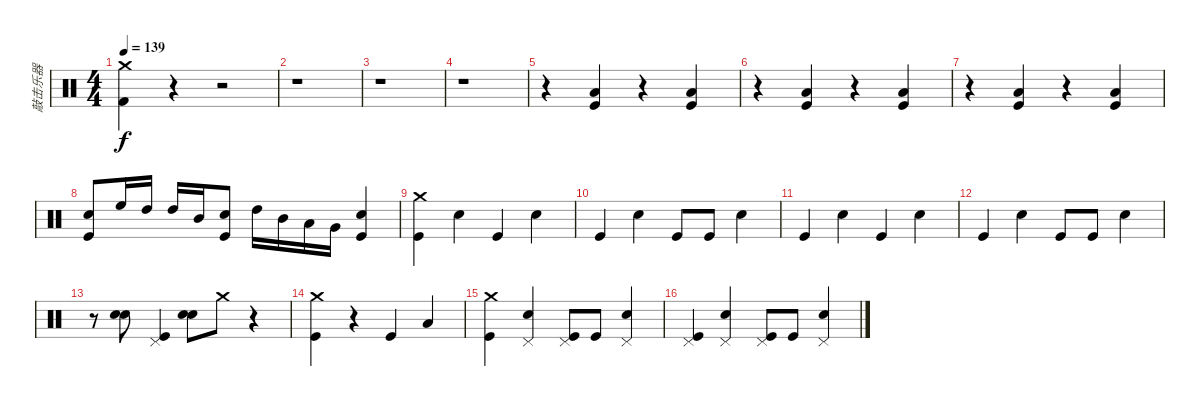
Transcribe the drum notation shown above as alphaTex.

\track ("敲击乐器" "敲击乐器") {instrument percussion}
\staff {score}
\articulation defaults
\ts (4 4)
\tempo 139
\clef neutral
\ks c
("Crash medium (hit)" "Kick (hit) 2").4{dy f} r.4 r.2 |
r.1 |
r.1 |
r.1 |
r.4 ("Low Tom (hit)" "Kick (hit)").4 r.4 ("Low Tom (hit)" "Kick (hit)").4 |
r.4 ("Low Tom (hit)" "Kick (hit)").4 r.4 ("Low Tom (hit)" "Kick (hit)").4 |
r.4 ("Low Tom (hit)" "Kick (hit)").4 r.4 ("Low Tom (hit)" "Kick (hit)").4 |
("Snare (hit) 2" "Kick (hit)").8 "High Floor Tom (hit)".16 "High Tom (hit)".16 "High Tom (hit)".16 "Mid Tom (hit)".16 ("Snare (hit) 2" "Kick (hit)").8 "High Tom (hit)".16 "Mid Tom (hit)".16 "Low Tom (hit)".16 "Very Low Tom (hit)".16 ("Snare (hit) 2" "Kick (hit)").4 |
("Crash medium (hit)" "Kick (hit)").4 "Snare (hit) 2".4 "Kick (hit)".4 "Snare (hit) 2".4 |
"Kick (hit)".4 "Snare (hit) 2".4 "Kick (hit)".8 "Kick (hit)".8 "Snare (hit) 2".4 |
"Kick (hit)".4 "Snare (hit) 2".4 "Kick (hit)".4 "Snare (hit) 2".4 |
"Kick (hit)".4 "Snare (hit) 2".4 "Kick (hit)".8 "Kick (hit)".8 "Snare (hit) 2".4 |
r.8 ("Snare (hit) 2" "Snare (hit) 2").8 ("Pedal Hi-Hat (hit)" "Kick (hit)").4 ("Snare (hit) 2" "Snare (hit) 2").8 "Crash medium (hit)".8 r.4 |
("Crash medium (hit)" "Kick (hit)").4 r.4 "Kick (hit)".4 "Low Tom (hit)".4 |
("Crash medium (hit)" "Kick (hit)").4 ("Pedal Hi-Hat (hit)" "Snare (hit) 2").4 ("Pedal Hi-Hat (hit)" "Kick (hit)").8 "Kick (hit)".8 ("Pedal Hi-Hat (hit)" "Snare (hit) 2").4 |
("Pedal Hi-Hat (hit)" "Kick (hit)").4 ("Pedal Hi-Hat (hit)" "Snare (hit) 2").4 ("Pedal Hi-Hat (hit)" "Kick (hit)").8 "Kick (hit)".8 ("Pedal Hi-Hat (hit)" "Snare (hit) 2").4
